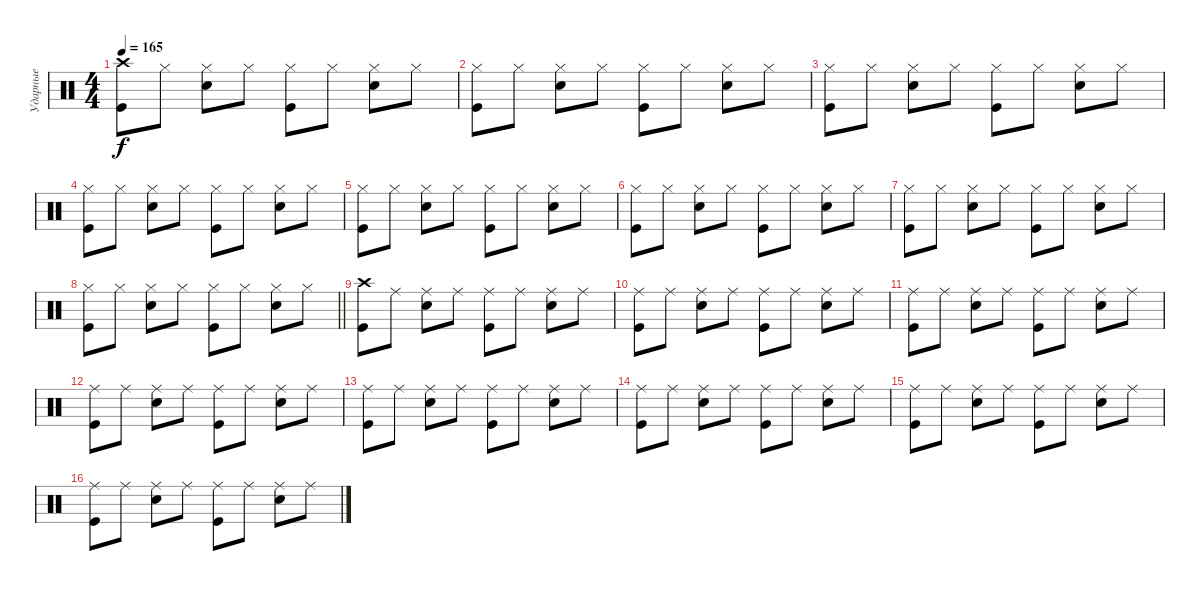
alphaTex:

\track ("Ударные" "Ударные") {instrument percussion}
\staff {score}
\articulation defaults
\ts (4 4)
\tempo 165
\clef neutral
\ks c
("Crash high (hit)" "Kick (hit)").8{dy f} "Hi-Hat (closed)".8 ("Hi-Hat (closed)" "Snare (hit) 2").8 "Hi-Hat (closed)".8 ("Hi-Hat (closed)" "Kick (hit)").8 "Hi-Hat (closed)".8 ("Hi-Hat (closed)" "Snare (hit) 2").8 "Hi-Hat (closed)".8 |
("Hi-Hat (closed)" "Kick (hit)").8 "Hi-Hat (closed)".8 ("Hi-Hat (closed)" "Snare (hit) 2").8 "Hi-Hat (closed)".8 ("Hi-Hat (closed)" "Kick (hit)").8 "Hi-Hat (closed)".8 ("Hi-Hat (closed)" "Snare (hit) 2").8 "Hi-Hat (closed)".8 |
("Hi-Hat (closed)" "Kick (hit)").8 "Hi-Hat (closed)".8 ("Hi-Hat (closed)" "Snare (hit) 2").8 "Hi-Hat (closed)".8 ("Hi-Hat (closed)" "Kick (hit)").8 "Hi-Hat (closed)".8 ("Hi-Hat (closed)" "Snare (hit) 2").8 "Hi-Hat (closed)".8 |
("Hi-Hat (closed)" "Kick (hit)").8 "Hi-Hat (closed)".8 ("Hi-Hat (closed)" "Snare (hit) 2").8 "Hi-Hat (closed)".8 ("Hi-Hat (closed)" "Kick (hit)").8 "Hi-Hat (closed)".8 ("Hi-Hat (closed)" "Snare (hit) 2").8 "Hi-Hat (closed)".8 |
("Hi-Hat (closed)" "Kick (hit)").8 "Hi-Hat (closed)".8 ("Hi-Hat (closed)" "Snare (hit) 2").8 "Hi-Hat (closed)".8 ("Hi-Hat (closed)" "Kick (hit)").8 "Hi-Hat (closed)".8 ("Hi-Hat (closed)" "Snare (hit) 2").8 "Hi-Hat (closed)".8 |
("Hi-Hat (closed)" "Kick (hit)").8 "Hi-Hat (closed)".8 ("Hi-Hat (closed)" "Snare (hit) 2").8 "Hi-Hat (closed)".8 ("Hi-Hat (closed)" "Kick (hit)").8 "Hi-Hat (closed)".8 ("Hi-Hat (closed)" "Snare (hit) 2").8 "Hi-Hat (closed)".8 |
("Hi-Hat (closed)" "Kick (hit)").8 "Hi-Hat (closed)".8 ("Hi-Hat (closed)" "Snare (hit) 2").8 "Hi-Hat (closed)".8 ("Hi-Hat (closed)" "Kick (hit)").8 "Hi-Hat (closed)".8 ("Hi-Hat (closed)" "Snare (hit) 2").8 "Hi-Hat (closed)".8 |
\barLineRight lightlight
("Hi-Hat (closed)" "Kick (hit)").8 "Hi-Hat (closed)".8 ("Hi-Hat (closed)" "Snare (hit) 2").8 "Hi-Hat (closed)".8 ("Hi-Hat (closed)" "Kick (hit)").8 "Hi-Hat (closed)".8 ("Hi-Hat (closed)" "Snare (hit) 2").8 "Hi-Hat (closed)".8 |
("Crash high (hit)" "Kick (hit)").8 "Ride (middle)".8 ("Ride (middle)" "Snare (hit) 2").8 "Ride (middle)".8 ("Ride (middle)" "Kick (hit)").8 "Ride (middle)".8 ("Ride (middle)" "Snare (hit) 2").8 "Ride (middle)".8 |
("Ride (middle)" "Kick (hit)").8 "Ride (middle)".8 ("Ride (middle)" "Snare (hit) 2").8 "Ride (middle)".8 ("Ride (middle)" "Kick (hit)").8 "Ride (middle)".8 ("Ride (middle)" "Snare (hit) 2").8 "Ride (middle)".8 |
("Ride (middle)" "Kick (hit)").8 "Ride (middle)".8 ("Ride (middle)" "Snare (hit) 2").8 "Ride (middle)".8 ("Ride (middle)" "Kick (hit)").8 "Ride (middle)".8 ("Ride (middle)" "Snare (hit) 2").8 "Ride (middle)".8 |
("Ride (middle)" "Kick (hit)").8 "Ride (middle)".8 ("Ride (middle)" "Snare (hit) 2").8 "Ride (middle)".8 ("Ride (middle)" "Kick (hit)").8 "Ride (middle)".8 ("Ride (middle)" "Snare (hit) 2").8 "Ride (middle)".8 |
("Ride (middle)" "Kick (hit)").8 "Ride (middle)".8 ("Ride (middle)" "Snare (hit) 2").8 "Ride (middle)".8 ("Ride (middle)" "Kick (hit)").8 "Ride (middle)".8 ("Ride (middle)" "Snare (hit) 2").8 "Ride (middle)".8 |
("Ride (middle)" "Kick (hit)").8 "Ride (middle)".8 ("Ride (middle)" "Snare (hit) 2").8 "Ride (middle)".8 ("Ride (middle)" "Kick (hit)").8 "Ride (middle)".8 ("Ride (middle)" "Snare (hit) 2").8 "Ride (middle)".8 |
("Ride (middle)" "Kick (hit)").8 "Ride (middle)".8 ("Ride (middle)" "Snare (hit) 2").8 "Ride (middle)".8 ("Ride (middle)" "Kick (hit)").8 "Ride (middle)".8 ("Ride (middle)" "Snare (hit) 2").8 "Ride (middle)".8 |
("Ride (middle)" "Kick (hit)").8 "Ride (middle)".8 ("Ride (middle)" "Snare (hit) 2").8 "Ride (middle)".8 ("Ride (middle)" "Kick (hit)").8 "Ride (middle)".8 ("Ride (middle)" "Snare (hit) 2").8 "Ride (middle)".8
